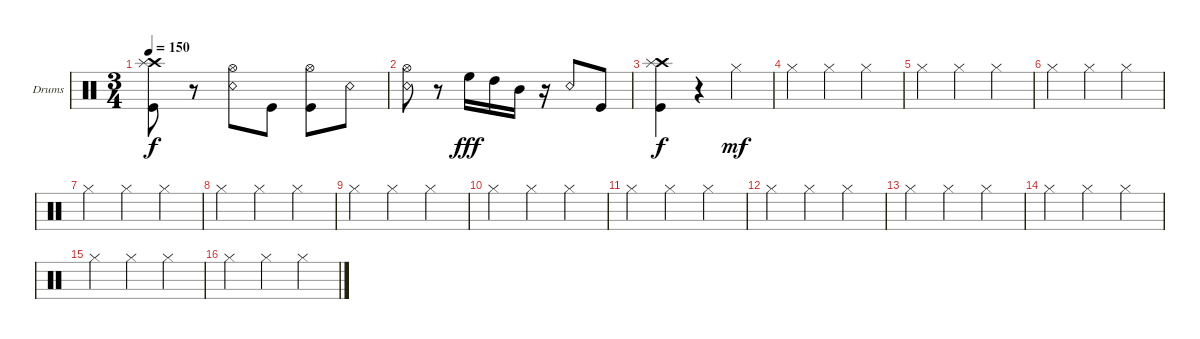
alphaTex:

\defaultSystemsLayout 4
\bracketExtendMode groupsimilarinstruments
\firstSystemTrackNameOrientation horizontal
\otherSystemsTrackNameOrientation horizontal
\track ("Scott" "Drums") {instrument percussion}
\staff {score}
\articulation defaults
\ts (3 4)
\tempo 150
\clef neutral
\scale
0.333333
\ks c
("Kick (hit)" "Crash high (hit)" "Splash (hit)").8{dy f} r.8 ("Snare (rim shot)" "Hi-Hat (open)").8 "Kick (hit)".8 ("Kick (hit)" "Hi-Hat (open)").8 "Snare (rim shot)".8 |
\scale
0.333333 ("Snare (rim shot)" "Hi-Hat (open)").8 r.8 "High Floor Tom (hit)".16{dy fff} "High Tom (hit)".16 "Mid Tom (hit)".16 r.16 "Snare (rim shot)".8 "Kick (hit)".8 |
\scale
0.333333 ("Kick (hit)" "Crash high (hit)" "Splash (hit)").4{dy f} r.4 "Hi-Hat (closed)".4{dy mf} |
\scale
0.333333 "Hi-Hat (closed)".4 "Hi-Hat (closed)".4 "Hi-Hat (closed)".4 |
\scale
0.333333 "Hi-Hat (closed)".4 "Hi-Hat (closed)".4 "Hi-Hat (closed)".4 |
\scale
0.333333 "Hi-Hat (closed)".4 "Hi-Hat (closed)".4 "Hi-Hat (closed)".4 |
\scale
0.333333 "Hi-Hat (closed)".4 "Hi-Hat (closed)".4 "Hi-Hat (closed)".4 |
\scale
0.333333 "Hi-Hat (closed)".4 "Hi-Hat (closed)".4 "Hi-Hat (closed)".4 |
\scale
0.333333 "Hi-Hat (closed)".4 "Hi-Hat (closed)".4 "Hi-Hat (closed)".4 |
\scale
0.333333 "Hi-Hat (closed)".4 "Hi-Hat (closed)".4 "Hi-Hat (closed)".4 |
\scale
0.333333 "Hi-Hat (closed)".4 "Hi-Hat (closed)".4 "Hi-Hat (closed)".4 |
\scale
0.333333 "Hi-Hat (closed)".4 "Hi-Hat (closed)".4 "Hi-Hat (closed)".4 |
\scale
0.333333 "Hi-Hat (closed)".4 "Hi-Hat (closed)".4 "Hi-Hat (closed)".4 |
\scale
0.333333 "Hi-Hat (closed)".4 "Hi-Hat (closed)".4 "Hi-Hat (closed)".4 |
\scale
0.333333 "Hi-Hat (closed)".4 "Hi-Hat (closed)".4 "Hi-Hat (closed)".4 |
\scale
0.333333 "Hi-Hat (closed)".4 "Hi-Hat (closed)".4 "Hi-Hat (closed)".4
